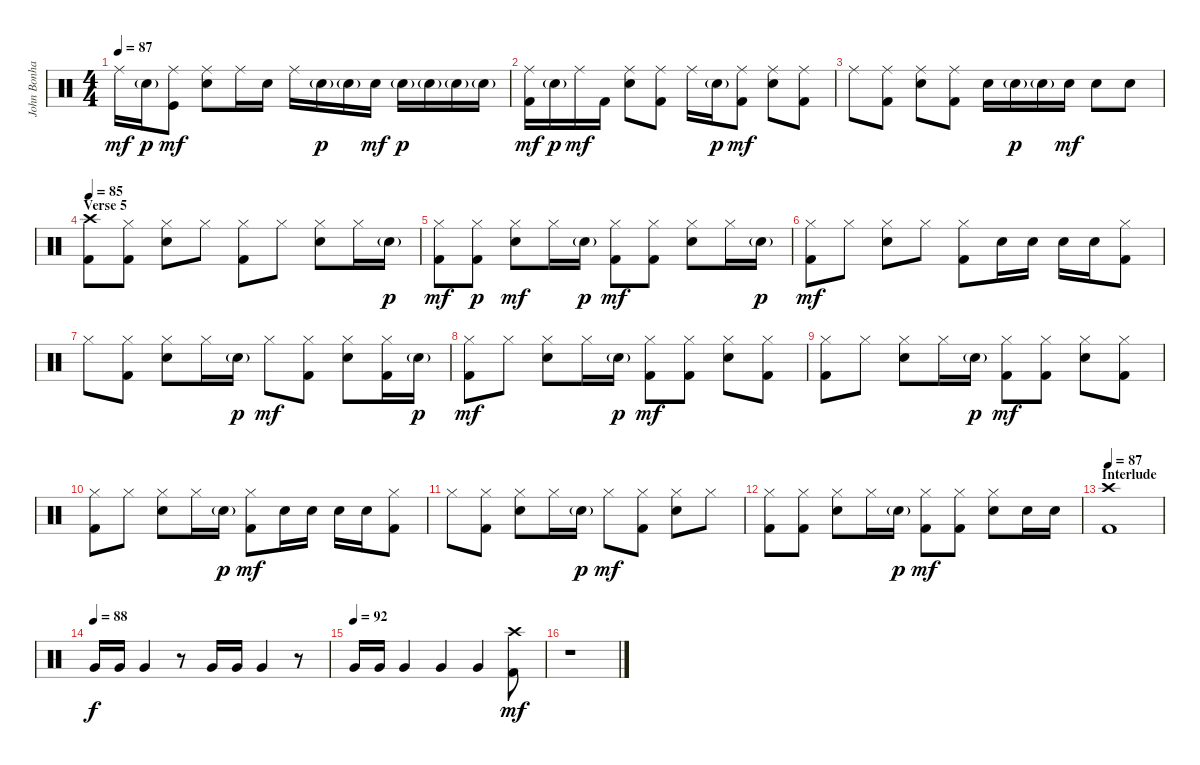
\track ("John Bonham - Drums" "John Bonha") {instrument percussion}
\staff {score}
\articulation defaults
\ts (4 4)
\tempo 87
\clef neutral
\ks c "Ride (middle)".16{dy mf} "Snare (hit) 2"{g}.16{dy p}
("Ride (middle)" "Kick (hit)").8{dy mf} ("Ride (middle)" "Snare (hit) 2").8 "Ride (middle)".16 "Snare (hit) 2".16 "Ride (middle)".16 "Snare (hit) 2"{g}.16{dy p} "Snare (hit) 2"{g}.16 "Snare (hit) 2".16{dy mf} "Snare (hit) 2"{g}.16{dy p} "Snare (hit) 2"{g}.16 "Snare (hit) 2"{g}.16 "Snare (hit) 2"{g}.16 |
("Ride (middle)" "Kick (hit) 2").16{dy mf} "Snare (hit) 2"{g}.16{dy p} "Ride (middle)".16{dy mf} "Kick (hit) 2".16 ("Ride (middle)" "Snare (hit) 2").8 ("Ride (middle)" "Kick (hit) 2").8 "Ride (middle)".16 "Snare (hit) 2"{g}.16{dy p} ("Ride (middle)" "Kick (hit) 2").8{dy mf} ("Ride (middle)" "Snare (hit) 2").8 ("Ride (middle)" "Kick (hit) 2").8 |
"Ride (middle)".8 ("Ride (middle)" "Kick (hit) 2").8 ("Ride (middle)" "Snare (hit) 2").8 ("Ride (middle)" "Kick (hit) 2").8 "Snare (hit) 2".16 "Snare (hit) 2"{g}.16{dy p} "Snare (hit) 2"{g}.16 "Snare (hit) 2".16{dy mf} "Snare (hit) 2".8 "Snare (hit) 2".8 |
\section ("" "Verse 5")
\tempo 85
("Crash high (hit)" "Kick (hit) 2").8 ("Hi-Hat (closed)" "Kick (hit) 2").8 ("Hi-Hat (closed)" "Snare (hit) 2").8 "Hi-Hat (closed)".8 ("Hi-Hat (closed)" "Kick (hit) 2").8 "Hi-Hat (closed)".8 ("Hi-Hat (closed)" "Snare (hit) 2").8 "Hi-Hat (closed)".16 "Snare (hit) 2"{g}.16{dy p} |
("Hi-Hat (closed)" "Kick (hit) 2").8{dy mf} ("Hi-Hat (closed)" "Kick (hit) 2").8{dy p} ("Hi-Hat (closed)" "Snare (hit) 2").8{dy mf} "Hi-Hat (closed)".16 "Snare (hit) 2"{g}.16{dy p} ("Hi-Hat (closed)" "Kick (hit) 2").8{dy mf} ("Hi-Hat (closed)" "Kick (hit) 2").8 ("Hi-Hat (closed)" "Snare (hit) 2").8 "Hi-Hat (closed)".16 "Snare (hit) 2"{g}.16{dy p} |
("Hi-Hat (closed)" "Kick (hit) 2").8{dy mf} "Hi-Hat (closed)".8 ("Hi-Hat (closed)" "Snare (hit) 2").8 "Hi-Hat (closed)".8 ("Hi-Hat (closed)" "Kick (hit) 2").8 "Snare (hit) 2".16 "Snare (hit) 2".16 "Snare (hit) 2".16 "Snare (hit) 2".16 ("Hi-Hat (closed)" "Kick (hit) 2").8 |
"Hi-Hat (closed)".8 ("Hi-Hat (closed)" "Kick (hit) 2").8 ("Hi-Hat (closed)" "Snare (hit) 2").8 "Hi-Hat (closed)".16 "Snare (hit) 2"{g}.16{dy p} "Hi-Hat (closed)".8{dy mf} ("Hi-Hat (closed)" "Kick (hit) 2").8 ("Hi-Hat (closed)" "Snare (hit) 2").8 ("Hi-Hat (closed)" "Kick (hit) 2").16 "Snare (hit) 2"{g}.16{dy p} |
("Hi-Hat (closed)" "Kick (hit) 2").8{dy mf} "Hi-Hat (closed)".8 ("Hi-Hat (closed)" "Snare (hit) 2").8 "Hi-Hat (closed)".16 "Snare (hit) 2"{g}.16{dy p} ("Hi-Hat (closed)" "Kick (hit) 2").8{dy mf} ("Hi-Hat (closed)" "Kick (hit) 2").8 ("Hi-Hat (closed)" "Snare (hit) 2").8 ("Hi-Hat (closed)" "Kick (hit) 2").8 |
("Hi-Hat (closed)" "Kick (hit) 2").8 "Hi-Hat (closed)".8 ("Hi-Hat (closed)" "Snare (hit) 2").8 "Hi-Hat (closed)".16 "Snare (hit) 2"{g}.16{dy p} ("Hi-Hat (closed)" "Kick (hit) 2").8{dy mf} ("Hi-Hat (closed)" "Kick (hit) 2").8 ("Hi-Hat (closed)" "Snare (hit) 2").8 ("Hi-Hat (closed)" "Kick (hit) 2").8 |
("Hi-Hat (closed)" "Kick (hit) 2").8 "Hi-Hat (closed)".8 ("Hi-Hat (closed)" "Snare (hit) 2").8 "Hi-Hat (closed)".16 "Snare (hit) 2"{g}.16{dy p} ("Hi-Hat (closed)" "Kick (hit) 2").8{dy mf} "Snare (hit) 2".16 "Snare (hit) 2".16 "Snare (hit) 2".16 "Snare (hit) 2".16 ("Hi-Hat (closed)" "Kick (hit) 2").8 |
"Hi-Hat (closed)".8 ("Hi-Hat (closed)" "Kick (hit) 2").8 ("Hi-Hat (closed)" "Snare (hit) 2").8 "Hi-Hat (closed)".16 "Snare (hit) 2"{g}.16{dy p} "Hi-Hat (closed)".8{dy mf} ("Hi-Hat (closed)" "Kick (hit) 2").8 ("Hi-Hat (closed)" "Snare (hit) 2").8 "Hi-Hat (closed)".8 |
("Hi-Hat (closed)" "Kick (hit) 2").8 ("Hi-Hat (closed)" "Kick (hit) 2").8 ("Hi-Hat (closed)" "Snare (hit) 2").8 "Hi-Hat (closed)".16 "Snare (hit) 2"{g}.16{dy p} ("Hi-Hat (closed)" "Kick (hit) 2").8{dy mf} ("Hi-Hat (closed)" "Kick (hit) 2").8 ("Hi-Hat (closed)" "Snare (hit) 2").8 "Snare (hit) 2".16 "Snare (hit) 2".16 |
\section ("" "Interlude")
\tempo 87
("Crash high (hit)" "Kick (hit) 2").1 |
\tempo (88)
"Very Low Tom (hit)".16{dy f} "Very Low Tom (hit)".16 "Very Low Tom (hit)".4 r.8 "Very Low Tom (hit)".16 "Very Low Tom (hit)".16 "Very Low Tom (hit)".4 r.8 |
\tempo (92)
"Very Low Tom (hit)".16 "Very Low Tom (hit)".16 "Very Low Tom (hit)".4 "Very Low Tom (hit)".4 "Very Low Tom (hit)".4 ("Crash high (hit)" "Kick (hit) 2").8{dy mf} |
r.1
